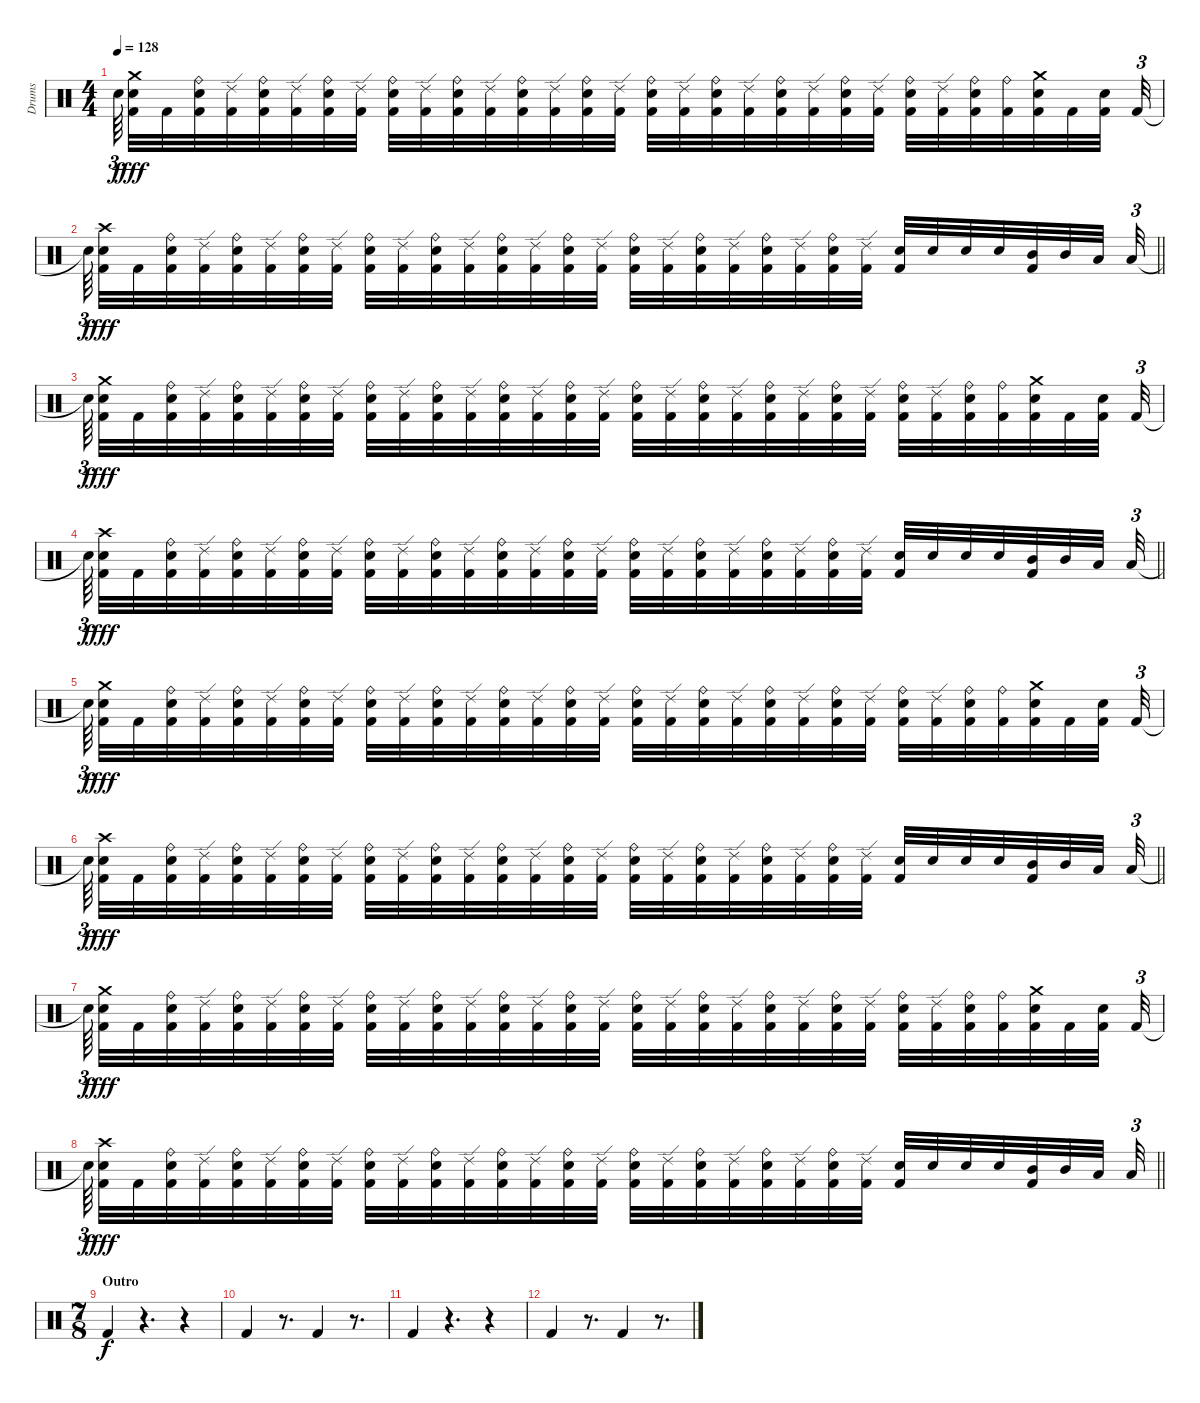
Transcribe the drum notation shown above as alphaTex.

\track ("Drums" "Drums") {instrument percussion}
\staff {score}
\articulation defaults
\ts (4 4)
\tempo 128
\clef neutral
\ks c "Snare (hit)"{t}.64{tu (3 2) dy f beam splitsecondary}
("Kick (hit) 2" "Snare (hit) 2" "Crash medium (hit)").32{dy fff} "Kick (hit) 2".32 ("Kick (hit) 2" "Snare (hit) 2" "Ride (bell)").32 ("Kick (hit) 2" "Ride (edge) 2").32 ("Kick (hit) 2" "Snare (hit) 2" "Ride (bell)").32 ("Kick (hit) 2" "Ride (edge) 2").32 ("Kick (hit) 2" "Snare (hit) 2" "Ride (bell)").32 ("Kick (hit) 2" "Ride (edge) 2").32 ("Kick (hit) 2" "Snare (hit) 2" "Ride (bell)").32 ("Kick (hit) 2" "Ride (edge) 2").32 ("Kick (hit) 2" "Snare (hit) 2" "Ride (bell)").32 ("Kick (hit) 2" "Ride (edge) 2").32 ("Kick (hit) 2" "Snare (hit) 2" "Ride (bell)").32 ("Kick (hit) 2" "Ride (edge) 2").32 ("Kick (hit) 2" "Snare (hit) 2" "Ride (bell)").32 ("Kick (hit) 2" "Ride (edge) 2").32 ("Kick (hit) 2" "Snare (hit) 2" "Ride (bell)").32 ("Kick (hit) 2" "Ride (edge) 2").32 ("Kick (hit) 2" "Snare (hit) 2" "Ride (bell)").32 ("Kick (hit) 2" "Ride (edge) 2").32 ("Kick (hit) 2" "Snare (hit) 2" "Ride (bell)").32 ("Kick (hit) 2" "Ride (edge) 2").32 ("Kick (hit) 2" "Snare (hit) 2" "Ride (bell)").32 ("Kick (hit) 2" "Ride (edge) 2").32 ("Kick (hit) 2" "Snare (hit) 2" "Ride (bell)").32 ("Kick (hit) 2" "Ride (edge) 2").32 ("Kick (hit) 2" "Snare (hit) 2" "Ride (bell)").32 ("Kick (hit) 2" "Ride (bell)").32 ("Kick (hit) 2" "Snare (hit) 2" "Crash medium (hit)").32 "Kick (hit) 2".32 ("Kick (hit) 2" "Snare (hit) 2").32{beam splitsecondary} "Kick (hit) 2".32{tu (3 2)} |
\barLineRight lightlight "Snare (hit)"{t}.64{tu (3 2) dy f beam splitsecondary}
("Kick (hit) 2" "Snare (hit) 2" "Crash high (hit)").32{dy fff} "Kick (hit) 2".32 ("Kick (hit) 2" "Snare (hit) 2" "Ride (bell)").32 ("Kick (hit) 2" "Ride (edge) 2").32 ("Kick (hit) 2" "Snare (hit) 2" "Ride (bell)").32 ("Kick (hit) 2" "Ride (edge) 2").32 ("Kick (hit) 2" "Snare (hit) 2" "Ride (bell)").32 ("Kick (hit) 2" "Ride (edge) 2").32 ("Kick (hit) 2" "Snare (hit) 2" "Ride (bell)").32 ("Kick (hit) 2" "Ride (edge) 2").32 ("Kick (hit) 2" "Snare (hit) 2" "Ride (bell)").32 ("Kick (hit) 2" "Ride (edge) 2").32 ("Kick (hit) 2" "Snare (hit) 2" "Ride (bell)").32 ("Kick (hit) 2" "Ride (edge) 2").32 ("Kick (hit) 2" "Snare (hit) 2" "Ride (bell)").32 ("Kick (hit) 2" "Ride (edge) 2").32 ("Kick (hit) 2" "Snare (hit) 2" "Ride (bell)").32 ("Kick (hit) 2" "Ride (edge) 2").32 ("Kick (hit) 2" "Snare (hit) 2" "Ride (bell)").32 ("Kick (hit) 2" "Ride (edge) 2").32 ("Kick (hit) 2" "Snare (hit) 2" "Ride (bell)").32 ("Kick (hit) 2" "Ride (edge) 2").32 ("Kick (hit) 2" "Snare (hit) 2" "Ride (bell)").32 ("Kick (hit) 2" "Ride (edge) 2").32 ("Kick (hit) 2" "Snare (hit) 2").32 "Snare (hit) 2".32 "Snare (hit) 2".32 "Snare (hit) 2".32 ("Kick (hit) 2" "Mid Tom (hit)").32 "Mid Tom (hit)".32 "Low Tom (hit)".32{beam splitsecondary} "Low Tom (hit)".32{tu (3 2)} |
"Snare (hit)"{t}.64{tu (3 2) dy f beam splitsecondary} ("Kick (hit) 2" "Snare (hit) 2" "Crash medium (hit)").32{dy fff} "Kick (hit) 2".32 ("Kick (hit) 2" "Snare (hit) 2" "Ride (bell)").32 ("Kick (hit) 2" "Ride (edge) 2").32 ("Kick (hit) 2" "Snare (hit) 2" "Ride (bell)").32 ("Kick (hit) 2" "Ride (edge) 2").32 ("Kick (hit) 2" "Snare (hit) 2" "Ride (bell)").32 ("Kick (hit) 2" "Ride (edge) 2").32 ("Kick (hit) 2" "Snare (hit) 2" "Ride (bell)").32 ("Kick (hit) 2" "Ride (edge) 2").32 ("Kick (hit) 2" "Snare (hit) 2" "Ride (bell)").32 ("Kick (hit) 2" "Ride (edge) 2").32 ("Kick (hit) 2" "Snare (hit) 2" "Ride (bell)").32 ("Kick (hit) 2" "Ride (edge) 2").32 ("Kick (hit) 2" "Snare (hit) 2" "Ride (bell)").32 ("Kick (hit) 2" "Ride (edge) 2").32 ("Kick (hit) 2" "Snare (hit) 2" "Ride (bell)").32 ("Kick (hit) 2" "Ride (edge) 2").32 ("Kick (hit) 2" "Snare (hit) 2" "Ride (bell)").32 ("Kick (hit) 2" "Ride (edge) 2").32 ("Kick (hit) 2" "Snare (hit) 2" "Ride (bell)").32 ("Kick (hit) 2" "Ride (edge) 2").32 ("Kick (hit) 2" "Snare (hit) 2" "Ride (bell)").32 ("Kick (hit) 2" "Ride (edge) 2").32 ("Kick (hit) 2" "Snare (hit) 2" "Ride (bell)").32 ("Kick (hit) 2" "Ride (edge) 2").32 ("Kick (hit) 2" "Snare (hit) 2" "Ride (bell)").32 ("Kick (hit) 2" "Ride (bell)").32 ("Kick (hit) 2" "Snare (hit) 2" "Crash medium (hit)").32 "Kick (hit) 2".32 ("Kick (hit) 2" "Snare (hit) 2").32{beam splitsecondary} "Kick (hit) 2".32{tu (3 2)} |
\barLineRight lightlight "Snare (hit)"{t}.64{tu (3 2) dy f beam splitsecondary}
("Kick (hit) 2" "Snare (hit) 2" "Crash high (hit)").32{dy fff} "Kick (hit) 2".32 ("Kick (hit) 2" "Snare (hit) 2" "Ride (bell)").32 ("Kick (hit) 2" "Ride (edge) 2").32 ("Kick (hit) 2" "Snare (hit) 2" "Ride (bell)").32 ("Kick (hit) 2" "Ride (edge) 2").32 ("Kick (hit) 2" "Snare (hit) 2" "Ride (bell)").32 ("Kick (hit) 2" "Ride (edge) 2").32 ("Kick (hit) 2" "Snare (hit) 2" "Ride (bell)").32 ("Kick (hit) 2" "Ride (edge) 2").32 ("Kick (hit) 2" "Snare (hit) 2" "Ride (bell)").32 ("Kick (hit) 2" "Ride (edge) 2").32 ("Kick (hit) 2" "Snare (hit) 2" "Ride (bell)").32 ("Kick (hit) 2" "Ride (edge) 2").32 ("Kick (hit) 2" "Snare (hit) 2" "Ride (bell)").32 ("Kick (hit) 2" "Ride (edge) 2").32 ("Kick (hit) 2" "Snare (hit) 2" "Ride (bell)").32 ("Kick (hit) 2" "Ride (edge) 2").32 ("Kick (hit) 2" "Snare (hit) 2" "Ride (bell)").32 ("Kick (hit) 2" "Ride (edge) 2").32 ("Kick (hit) 2" "Snare (hit) 2" "Ride (bell)").32 ("Kick (hit) 2" "Ride (edge) 2").32 ("Kick (hit) 2" "Snare (hit) 2" "Ride (bell)").32 ("Kick (hit) 2" "Ride (edge) 2").32 ("Kick (hit) 2" "Snare (hit) 2").32 "Snare (hit) 2".32 "Snare (hit) 2".32 "Snare (hit) 2".32 ("Kick (hit) 2" "Mid Tom (hit)").32 "Mid Tom (hit)".32 "Low Tom (hit)".32{beam splitsecondary} "Low Tom (hit)".32{tu (3 2)} |
"Snare (hit)"{t}.64{tu (3 2) dy f beam splitsecondary} ("Kick (hit) 2" "Snare (hit) 2" "Crash medium (hit)").32{dy fff} "Kick (hit) 2".32 ("Kick (hit) 2" "Snare (hit) 2" "Ride (bell)").32 ("Kick (hit) 2" "Ride (edge) 2").32 ("Kick (hit) 2" "Snare (hit) 2" "Ride (bell)").32 ("Kick (hit) 2" "Ride (edge) 2").32 ("Kick (hit) 2" "Snare (hit) 2" "Ride (bell)").32 ("Kick (hit) 2" "Ride (edge) 2").32 ("Kick (hit) 2" "Snare (hit) 2" "Ride (bell)").32 ("Kick (hit) 2" "Ride (edge) 2").32 ("Kick (hit) 2" "Snare (hit) 2" "Ride (bell)").32 ("Kick (hit) 2" "Ride (edge) 2").32 ("Kick (hit) 2" "Snare (hit) 2" "Ride (bell)").32 ("Kick (hit) 2" "Ride (edge) 2").32 ("Kick (hit) 2" "Snare (hit) 2" "Ride (bell)").32 ("Kick (hit) 2" "Ride (edge) 2").32 ("Kick (hit) 2" "Snare (hit) 2" "Ride (bell)").32 ("Kick (hit) 2" "Ride (edge) 2").32 ("Kick (hit) 2" "Snare (hit) 2" "Ride (bell)").32 ("Kick (hit) 2" "Ride (edge) 2").32 ("Kick (hit) 2" "Snare (hit) 2" "Ride (bell)").32 ("Kick (hit) 2" "Ride (edge) 2").32 ("Kick (hit) 2" "Snare (hit) 2" "Ride (bell)").32 ("Kick (hit) 2" "Ride (edge) 2").32 ("Kick (hit) 2" "Snare (hit) 2" "Ride (bell)").32 ("Kick (hit) 2" "Ride (edge) 2").32 ("Kick (hit) 2" "Snare (hit) 2" "Ride (bell)").32 ("Kick (hit) 2" "Ride (bell)").32 ("Kick (hit) 2" "Snare (hit) 2" "Crash medium (hit)").32 "Kick (hit) 2".32 ("Kick (hit) 2" "Snare (hit) 2").32{beam splitsecondary} "Kick (hit) 2".32{tu (3 2)} |
\barLineRight lightlight "Snare (hit)"{t}.64{tu (3 2) dy f beam splitsecondary}
("Kick (hit) 2" "Snare (hit) 2" "Crash high (hit)").32{dy fff} "Kick (hit) 2".32 ("Kick (hit) 2" "Snare (hit) 2" "Ride (bell)").32 ("Kick (hit) 2" "Ride (edge) 2").32 ("Kick (hit) 2" "Snare (hit) 2" "Ride (bell)").32 ("Kick (hit) 2" "Ride (edge) 2").32 ("Kick (hit) 2" "Snare (hit) 2" "Ride (bell)").32 ("Kick (hit) 2" "Ride (edge) 2").32 ("Kick (hit) 2" "Snare (hit) 2" "Ride (bell)").32 ("Kick (hit) 2" "Ride (edge) 2").32 ("Kick (hit) 2" "Snare (hit) 2" "Ride (bell)").32 ("Kick (hit) 2" "Ride (edge) 2").32 ("Kick (hit) 2" "Snare (hit) 2" "Ride (bell)").32 ("Kick (hit) 2" "Ride (edge) 2").32 ("Kick (hit) 2" "Snare (hit) 2" "Ride (bell)").32 ("Kick (hit) 2" "Ride (edge) 2").32 ("Kick (hit) 2" "Snare (hit) 2" "Ride (bell)").32 ("Kick (hit) 2" "Ride (edge) 2").32 ("Kick (hit) 2" "Snare (hit) 2" "Ride (bell)").32 ("Kick (hit) 2" "Ride (edge) 2").32 ("Kick (hit) 2" "Snare (hit) 2" "Ride (bell)").32 ("Kick (hit) 2" "Ride (edge) 2").32 ("Kick (hit) 2" "Snare (hit) 2" "Ride (bell)").32 ("Kick (hit) 2" "Ride (edge) 2").32 ("Kick (hit) 2" "Snare (hit) 2").32 "Snare (hit) 2".32 "Snare (hit) 2".32 "Snare (hit) 2".32 ("Kick (hit) 2" "Mid Tom (hit)").32 "Mid Tom (hit)".32 "Low Tom (hit)".32{beam splitsecondary} "Low Tom (hit)".32{tu (3 2)} |
"Snare (hit)"{t}.64{tu (3 2) dy f beam splitsecondary} ("Kick (hit) 2" "Snare (hit) 2" "Crash medium (hit)").32{dy fff} "Kick (hit) 2".32 ("Kick (hit) 2" "Snare (hit) 2" "Ride (bell)").32 ("Kick (hit) 2" "Ride (edge) 2").32 ("Kick (hit) 2" "Snare (hit) 2" "Ride (bell)").32 ("Kick (hit) 2" "Ride (edge) 2").32 ("Kick (hit) 2" "Snare (hit) 2" "Ride (bell)").32 ("Kick (hit) 2" "Ride (edge) 2").32 ("Kick (hit) 2" "Snare (hit) 2" "Ride (bell)").32 ("Kick (hit) 2" "Ride (edge) 2").32 ("Kick (hit) 2" "Snare (hit) 2" "Ride (bell)").32 ("Kick (hit) 2" "Ride (edge) 2").32 ("Kick (hit) 2" "Snare (hit) 2" "Ride (bell)").32 ("Kick (hit) 2" "Ride (edge) 2").32 ("Kick (hit) 2" "Snare (hit) 2" "Ride (bell)").32 ("Kick (hit) 2" "Ride (edge) 2").32 ("Kick (hit) 2" "Snare (hit) 2" "Ride (bell)").32 ("Kick (hit) 2" "Ride (edge) 2").32 ("Kick (hit) 2" "Snare (hit) 2" "Ride (bell)").32 ("Kick (hit) 2" "Ride (edge) 2").32 ("Kick (hit) 2" "Snare (hit) 2" "Ride (bell)").32 ("Kick (hit) 2" "Ride (edge) 2").32 ("Kick (hit) 2" "Snare (hit) 2" "Ride (bell)").32 ("Kick (hit) 2" "Ride (edge) 2").32 ("Kick (hit) 2" "Snare (hit) 2" "Ride (bell)").32 ("Kick (hit) 2" "Ride (edge) 2").32 ("Kick (hit) 2" "Snare (hit) 2" "Ride (bell)").32 ("Kick (hit) 2" "Ride (bell)").32 ("Kick (hit) 2" "Snare (hit) 2" "Crash medium (hit)").32 "Kick (hit) 2".32 ("Kick (hit) 2" "Snare (hit) 2").32{beam splitsecondary} "Kick (hit) 2".32{tu (3 2)} |
\barLineRight lightlight "Snare (hit)"{t}.64{tu (3 2) dy f beam splitsecondary}
("Kick (hit) 2" "Snare (hit) 2" "Crash high (hit)").32{dy fff} "Kick (hit) 2".32 ("Kick (hit) 2" "Snare (hit) 2" "Ride (bell)").32 ("Kick (hit) 2" "Ride (edge) 2").32 ("Kick (hit) 2" "Snare (hit) 2" "Ride (bell)").32 ("Kick (hit) 2" "Ride (edge) 2").32 ("Kick (hit) 2" "Snare (hit) 2" "Ride (bell)").32 ("Kick (hit) 2" "Ride (edge) 2").32 ("Kick (hit) 2" "Snare (hit) 2" "Ride (bell)").32 ("Kick (hit) 2" "Ride (edge) 2").32 ("Kick (hit) 2" "Snare (hit) 2" "Ride (bell)").32 ("Kick (hit) 2" "Ride (edge) 2").32 ("Kick (hit) 2" "Snare (hit) 2" "Ride (bell)").32 ("Kick (hit) 2" "Ride (edge) 2").32 ("Kick (hit) 2" "Snare (hit) 2" "Ride (bell)").32 ("Kick (hit) 2" "Ride (edge) 2").32 ("Kick (hit) 2" "Snare (hit) 2" "Ride (bell)").32 ("Kick (hit) 2" "Ride (edge) 2").32 ("Kick (hit) 2" "Snare (hit) 2" "Ride (bell)").32 ("Kick (hit) 2" "Ride (edge) 2").32 ("Kick (hit) 2" "Snare (hit) 2" "Ride (bell)").32 ("Kick (hit) 2" "Ride (edge) 2").32 ("Kick (hit) 2" "Snare (hit) 2" "Ride (bell)").32 ("Kick (hit) 2" "Ride (edge) 2").32 ("Kick (hit) 2" "Snare (hit) 2").32 "Snare (hit) 2".32 "Snare (hit) 2".32 "Snare (hit) 2".32 ("Kick (hit) 2" "Mid Tom (hit)").32 "Mid Tom (hit)".32 "Low Tom (hit)".32{beam splitsecondary} "Low Tom (hit)".32{tu (3 2)} |
\ts (7 8)
\section ("" "Outro")
"Kick (hit) 2".4{dy f} r.4{d} r.4 |
"Kick (hit) 2".4 r.8{d} "Kick (hit) 2".4 r.8{d} |
"Kick (hit) 2".4 r.4{d} r.4 |
"Kick (hit) 2".4 r.8{d} "Kick (hit) 2".4 r.8{d}
